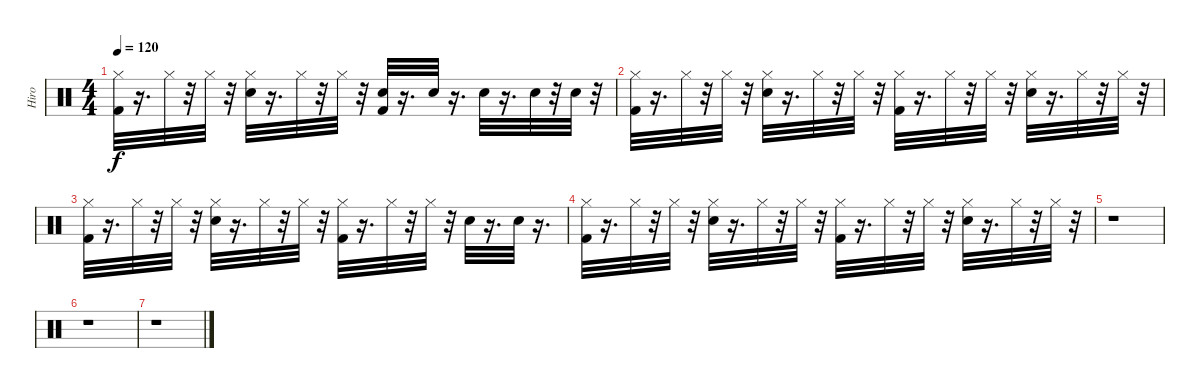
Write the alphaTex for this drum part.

\track ("Hiro" "Hiro") {instrument percussion}
\staff {score}
\articulation defaults
\ts (4 4)
\tempo 120
\clef neutral
\ks c
("Kick (hit) 2" "Hi-Hat (closed)").32{dy f} r.16{d} "Hi-Hat (closed)".32 r.32 "Hi-Hat (closed)".32 r.32 ("Hi-Hat (closed)" "Snare (hit) 2").32 r.16{d} "Hi-Hat (closed)".32 r.32 "Hi-Hat (closed)".32 r.32 ("Snare (hit) 2" "Kick (hit) 2").32 r.16{d} "Snare (hit) 2".32 r.16{d} "Snare (hit) 2".32 r.16{d} "Snare (hit) 2".32 r.32 "Snare (hit) 2".32 r.32 |
("Kick (hit) 2" "Hi-Hat (closed)").32 r.16{d} "Hi-Hat (closed)".32 r.32 "Hi-Hat (closed)".32 r.32 ("Hi-Hat (closed)" "Snare (hit) 2").32 r.16{d} "Hi-Hat (closed)".32 r.32 "Hi-Hat (closed)".32 r.32 ("Kick (hit) 2" "Hi-Hat (closed)").32 r.16{d} "Hi-Hat (closed)".32 r.32 "Hi-Hat (closed)".32 r.32 ("Hi-Hat (closed)" "Snare (hit) 2").32 r.16{d} "Hi-Hat (closed)".32 r.32 "Hi-Hat (closed)".32 r.32 |
("Kick (hit) 2" "Hi-Hat (closed)").32 r.16{d} "Hi-Hat (closed)".32 r.32 "Hi-Hat (closed)".32 r.32 ("Hi-Hat (closed)" "Snare (hit) 2").32 r.16{d} "Hi-Hat (closed)".32 r.32 "Hi-Hat (closed)".32 r.32 ("Kick (hit) 2" "Hi-Hat (closed)").32 r.16{d} "Hi-Hat (closed)".32 r.32 "Hi-Hat (closed)".32 r.32 "Snare (hit) 2".32 r.16{d} "Snare (hit) 2".32 r.16{d} |
("Kick (hit) 2" "Hi-Hat (closed)").32 r.16{d} "Hi-Hat (closed)".32 r.32 "Hi-Hat (closed)".32 r.32 ("Hi-Hat (closed)" "Snare (hit) 2").32 r.16{d} "Hi-Hat (closed)".32 r.32 "Hi-Hat (closed)".32 r.32 ("Kick (hit) 2" "Hi-Hat (closed)").32 r.16{d} "Hi-Hat (closed)".32 r.32 "Hi-Hat (closed)".32 r.32 ("Hi-Hat (closed)" "Snare (hit) 2").32 r.16{d} "Hi-Hat (closed)".32 r.32 "Hi-Hat (closed)".32 r.32 |
r.1 |
r.1 |
r.1
